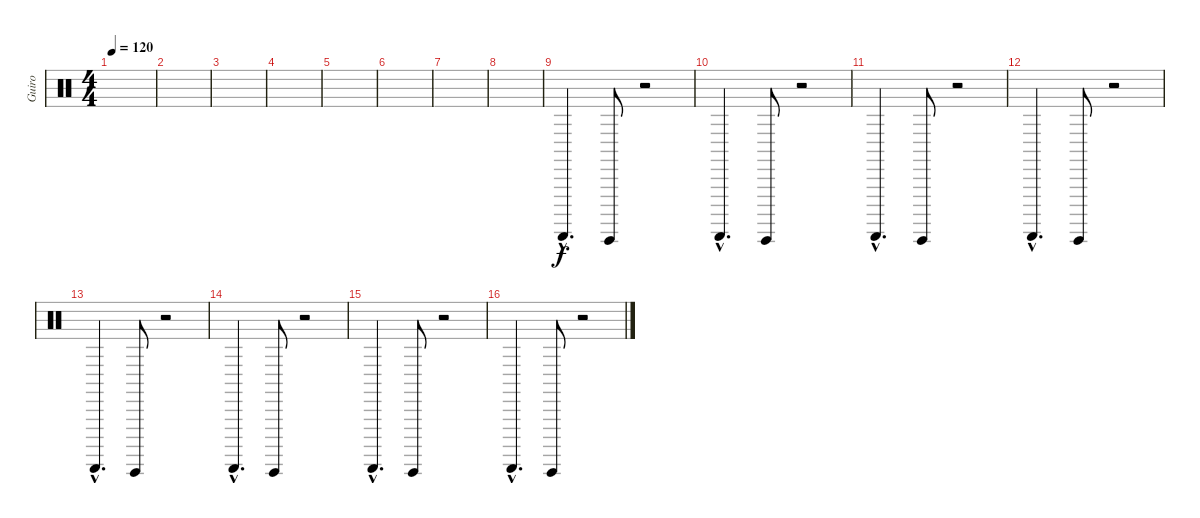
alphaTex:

\track ("Guiro" "Guiro") {instrument percussion}
\staff {score}
\articulation defaults
\ts (4 4)
\tempo 120
\clef neutral
\ks c
|
|
|
|
|
|
|
|
"Guiro (scrap-return)"{hac}.4{d} "Guiro (hit)".8 r.2 |
"Guiro (scrap-return)"{hac}.4{d} "Guiro (hit)".8 r.2 |
"Guiro (scrap-return)"{hac}.4{d} "Guiro (hit)".8 r.2 |
"Guiro (scrap-return)"{hac}.4{d} "Guiro (hit)".8 r.2 |
"Guiro (scrap-return)"{hac}.4{d} "Guiro (hit)".8 r.2 |
"Guiro (scrap-return)"{hac}.4{d} "Guiro (hit)".8 r.2 |
"Guiro (scrap-return)"{hac}.4{d} "Guiro (hit)".8 r.2 |
"Guiro (scrap-return)"{hac}.4{d} "Guiro (hit)".8 r.2
